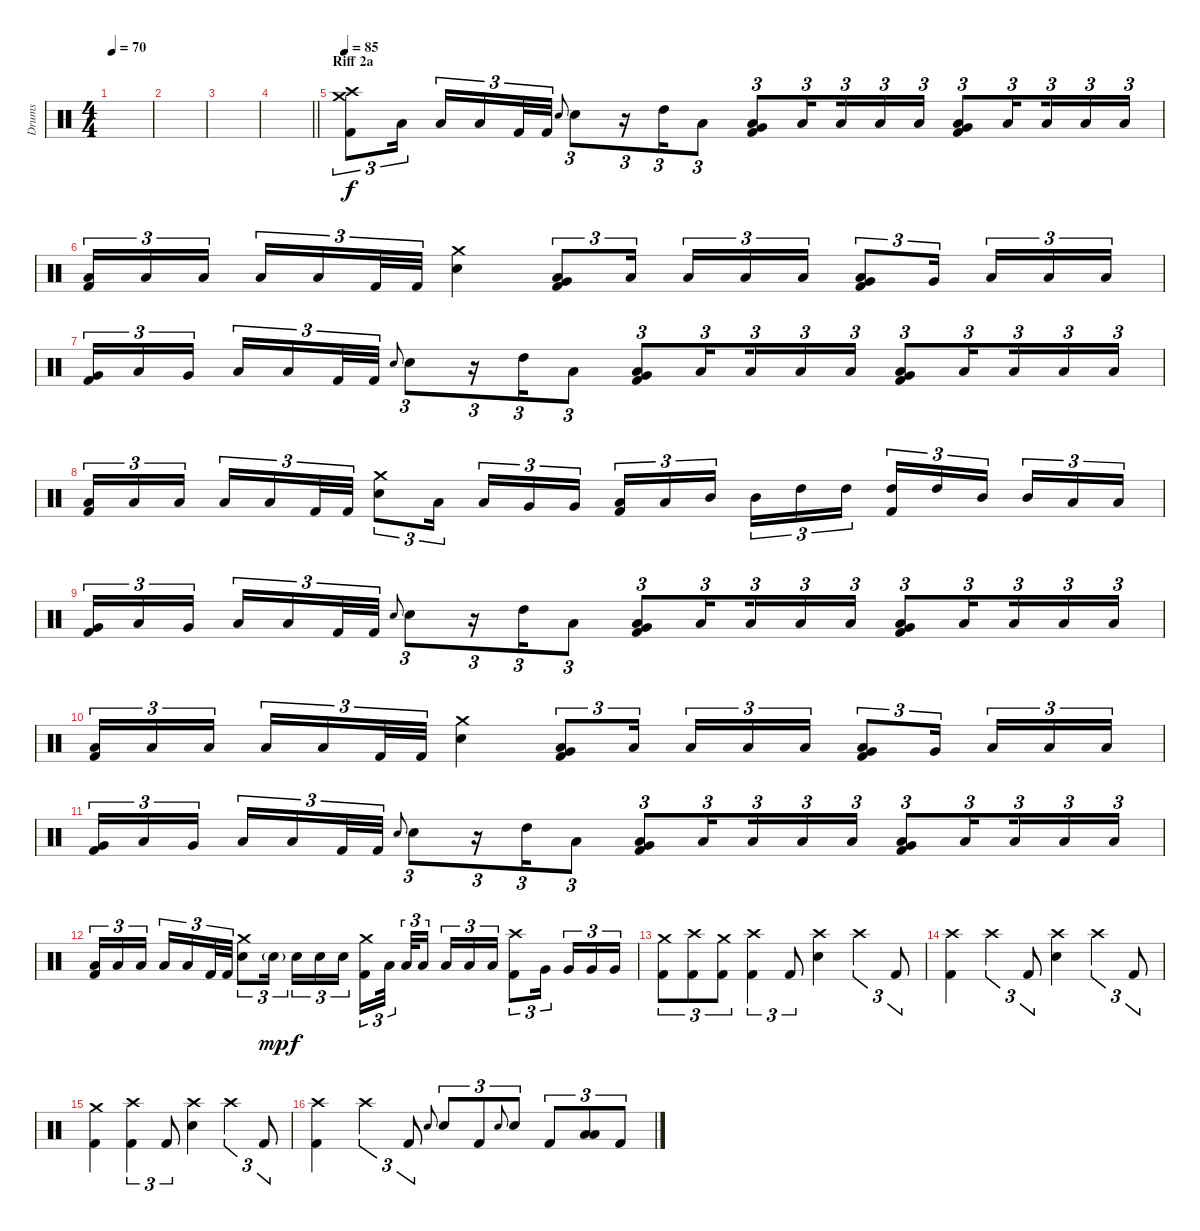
\track ("Drums" "Drums") {instrument percussion}
\staff {score}
\articulation defaults
\ts (4 4)
\tempo 70
\clef neutral
\ks c
|
|
|
\barLineRight lightlight
|
\section ("" "Riff 2a")
\tempo 85
("Crash high (hit)" "Crash medium (hit)" "Kick (hit) 2").8{tu (3 2)} "Low Floor Tom (hit)".16{tu (3 2) beam splitsecondary} "Low Floor Tom (hit)".16{tu (3 2)} "Low Floor Tom (hit)".16{tu (3 2)} "Kick (hit) 2".32{tu (3 2)} "Kick (hit) 2".32{tu (3 2)} "Electric Snare (hit)".8{gr onbeat} "Electric Snare (hit)".8{tu (3 2)} r.16{tu (3 2)} "High Tom (hit)".16{tu (3 2)} "Low Tom (hit)".8{tu (3 2)} ("Very Low Tom (hit)" "Low Floor Tom (hit)" "Kick (hit) 2").8{tu (3 2)} "Low Floor Tom (hit)".16{tu (3 2) beam splitsecondary} "Low Floor Tom (hit)".16{tu (3 2)} "Low Floor Tom (hit)".16{tu (3 2)} "Low Floor Tom (hit)".16{tu (3 2)} ("Kick (hit) 2" "Low Floor Tom (hit)" "Very Low Tom (hit)").8{tu (3 2)} "Low Tom (hit)".16{tu (3 2) beam splitsecondary} "Low Tom (hit)".16{tu (3 2)} "Low Tom (hit)".16{tu (3 2)} "Low Tom (hit)".16{tu (3 2)} |
("Kick (hit) 2" "Low Tom (hit)").16{tu (3 2)} "Low Tom (hit)".16{tu (3 2)} "Low Tom (hit)".16{tu (3 2) beam splitsecondary} "Low Tom (hit)".16{tu (3 2)} "Low Tom (hit)".16{tu (3 2)} "Kick (hit) 2".32{tu (3 2)} "Kick (hit) 2".32{tu (3 2)} ("Crash medium (hit)" "Electric Snare (hit)").4 ("Kick (hit) 2" "Low Floor Tom (hit)" "Very Low Tom (hit)").8{tu (3 2)} "Low Floor Tom (hit)".16{tu (3 2) beam splitsecondary} "Low Floor Tom (hit)".16{tu (3 2)} "Low Floor Tom (hit)".16{tu (3 2)} "Low Floor Tom (hit)".16{tu (3 2)} ("Kick (hit) 2" "Very Low Tom (hit)" "Low Floor Tom (hit)").8{tu (3 2)} "Very Low Tom (hit)".16{tu (3 2) beam splitsecondary} "Low Tom (hit)".16{tu (3 2)} "Low Tom (hit)".16{tu (3 2)} "Low Tom (hit)".16{tu (3 2)} |
("Very Low Tom (hit)" "Kick (hit) 2").16{tu (3 2)} "Low Tom (hit)".16{tu (3 2)} "Very Low Tom (hit)".16{tu (3 2) beam splitsecondary} "Low Floor Tom (hit)".16{tu (3 2)} "Low Tom (hit)".16{tu (3 2)} "Kick (hit) 2".32{tu (3 2)} "Kick (hit) 2".32{tu (3 2)} "Electric Snare (hit)".8{gr onbeat} "Electric Snare (hit)".8{tu (3 2)} r.16{tu (3 2)} "High Tom (hit)".16{tu (3 2)} "Low Tom (hit)".8{tu (3 2)} ("Very Low Tom (hit)" "Low Floor Tom (hit)" "Kick (hit) 2").8{tu (3 2)} "Low Floor Tom (hit)".16{tu (3 2) beam splitsecondary} "Low Floor Tom (hit)".16{tu (3 2)} "Low Floor Tom (hit)".16{tu (3 2)} "Low Floor Tom (hit)".16{tu (3 2)} ("Kick (hit) 2" "Low Floor Tom (hit)" "Very Low Tom (hit)").8{tu (3 2)} "Low Tom (hit)".16{tu (3 2) beam splitsecondary} "Low Tom (hit)".16{tu (3 2)} "Low Tom (hit)".16{tu (3 2)} "Low Tom (hit)".16{tu (3 2)} |
("Kick (hit) 2" "Low Tom (hit)").16{tu (3 2)} "Low Tom (hit)".16{tu (3 2)} "Low Tom (hit)".16{tu (3 2) beam splitsecondary} "Low Tom (hit)".16{tu (3 2)} "Low Tom (hit)".16{tu (3 2)} "Kick (hit) 2".32{tu (3 2)} "Kick (hit) 2".32{tu (3 2)} ("Crash medium (hit)" "Electric Snare (hit)").8{tu (3 2)} "Low Floor Tom (hit)".16{tu (3 2) beam splitsecondary} "Low Floor Tom (hit)".16{tu (3 2)} "Very Low Tom (hit)".16{tu (3 2)} "Very Low Tom (hit)".16{tu (3 2)} ("Kick (hit) 2" "Low Tom (hit)").16{tu (3 2)} "Low Tom (hit)".16{tu (3 2)} "Mid Tom (hit)".16{tu (3 2) beam splitsecondary} "Mid Tom (hit)".16{tu (3 2)} "High Tom (hit)".16{tu (3 2)} "High Tom (hit)".16{tu (3 2)} ("High Tom (hit)" "Kick (hit) 2").16{tu (3 2)} "High Tom (hit)".16{tu (3 2)} "Mid Tom (hit)".16{tu (3 2) beam splitsecondary} "Mid Tom (hit)".16{tu (3 2)} "Low Tom (hit)".16{tu (3 2)} "Low Floor Tom (hit)".16{tu (3 2)} |
("Very Low Tom (hit)" "Kick (hit) 2").16{tu (3 2)} "Low Tom (hit)".16{tu (3 2)} "Very Low Tom (hit)".16{tu (3 2) beam splitsecondary} "Low Floor Tom (hit)".16{tu (3 2)} "Low Tom (hit)".16{tu (3 2)} "Kick (hit) 2".32{tu (3 2)} "Kick (hit) 2".32{tu (3 2)} "Electric Snare (hit)".8{gr onbeat} "Electric Snare (hit)".8{tu (3 2)} r.16{tu (3 2)} "High Tom (hit)".16{tu (3 2)} "Low Tom (hit)".8{tu (3 2)} ("Very Low Tom (hit)" "Low Floor Tom (hit)" "Kick (hit) 2").8{tu (3 2)} "Low Floor Tom (hit)".16{tu (3 2) beam splitsecondary} "Low Floor Tom (hit)".16{tu (3 2)} "Low Floor Tom (hit)".16{tu (3 2)} "Low Floor Tom (hit)".16{tu (3 2)} ("Kick (hit) 2" "Low Floor Tom (hit)" "Very Low Tom (hit)").8{tu (3 2)} "Low Tom (hit)".16{tu (3 2) beam splitsecondary} "Low Tom (hit)".16{tu (3 2)} "Low Tom (hit)".16{tu (3 2)} "Low Tom (hit)".16{tu (3 2)} |
("Kick (hit) 2" "Low Tom (hit)").16{tu (3 2)} "Low Tom (hit)".16{tu (3 2)} "Low Tom (hit)".16{tu (3 2) beam splitsecondary} "Low Tom (hit)".16{tu (3 2)} "Low Tom (hit)".16{tu (3 2)} "Kick (hit) 2".32{tu (3 2)} "Kick (hit) 2".32{tu (3 2)} ("Crash medium (hit)" "Electric Snare (hit)").4 ("Kick (hit) 2" "Low Floor Tom (hit)" "Very Low Tom (hit)").8{tu (3 2)} "Low Floor Tom (hit)".16{tu (3 2) beam splitsecondary} "Low Floor Tom (hit)".16{tu (3 2)} "Low Floor Tom (hit)".16{tu (3 2)} "Low Floor Tom (hit)".16{tu (3 2)} ("Kick (hit) 2" "Very Low Tom (hit)" "Low Floor Tom (hit)").8{tu (3 2)} "Very Low Tom (hit)".16{tu (3 2) beam splitsecondary} "Low Tom (hit)".16{tu (3 2)} "Low Tom (hit)".16{tu (3 2)} "Low Tom (hit)".16{tu (3 2)} |
("Very Low Tom (hit)" "Kick (hit) 2").16{tu (3 2)} "Low Tom (hit)".16{tu (3 2)} "Very Low Tom (hit)".16{tu (3 2) beam splitsecondary} "Low Floor Tom (hit)".16{tu (3 2)} "Low Tom (hit)".16{tu (3 2)} "Kick (hit) 2".32{tu (3 2)} "Kick (hit) 2".32{tu (3 2)} "Electric Snare (hit)".8{gr onbeat} "Electric Snare (hit)".8{tu (3 2)} r.16{tu (3 2)} "High Tom (hit)".16{tu (3 2)} "Low Tom (hit)".8{tu (3 2)} ("Very Low Tom (hit)" "Low Floor Tom (hit)" "Kick (hit) 2").8{tu (3 2)} "Low Floor Tom (hit)".16{tu (3 2) beam splitsecondary} "Low Floor Tom (hit)".16{tu (3 2)} "Low Floor Tom (hit)".16{tu (3 2)} "Low Floor Tom (hit)".16{tu (3 2)} ("Kick (hit) 2" "Low Floor Tom (hit)" "Very Low Tom (hit)").8{tu (3 2)} "Low Tom (hit)".16{tu (3 2) beam splitsecondary} "Low Tom (hit)".16{tu (3 2)} "Low Tom (hit)".16{tu (3 2)} "Low Tom (hit)".16{tu (3 2)} |
("Kick (hit) 2" "Low Tom (hit)").16{tu (3 2)} "Low Tom (hit)".16{tu (3 2)} "Low Tom (hit)".16{tu (3 2) beam splitsecondary} "Low Tom (hit)".16{tu (3 2)} "Low Tom (hit)".16{tu (3 2)} "Kick (hit) 2".32{tu (3 2)} "Kick (hit) 2".32{tu (3 2)} ("Crash medium (hit)" "Electric Snare (hit)").8{tu (3 2)} "Electric Snare (hit)"{g}.16{tu (3 2) dy mp beam splitsecondary} "Electric Snare (hit)".16{tu (3 2) dy f} "Electric Snare (hit)".16{tu (3 2)} "Electric Snare (hit)".16{tu (3 2)} ("Kick (hit) 2" "Crash medium (hit)").16{tu (3 2)} "Low Tom (hit)".32{tu (3 2) beam splitsecondary} "Low Tom (hit)".32{tu (3 2)} "Low Tom (hit)".16{tu (3 2) beam splitsecondary} "Low Tom (hit)".16{tu (3 2)} "Low Tom (hit)".16{tu (3 2)} "Low Tom (hit)".16{tu (3 2)} ("Kick (hit) 2" "Crash high (hit)").8{tu (3 2)} "Very Low Tom (hit)".16{tu (3 2) beam splitsecondary} "Very Low Tom (hit)".16{tu (3 2)} "Very Low Tom (hit)".16{tu (3 2)} "Very Low Tom (hit)".16{tu (3 2)} |
("Crash medium (hit)" "Kick (hit) 2").8{tu (3 2)} ("Crash high (hit)" "Kick (hit) 2").8{tu (3 2)} ("Crash medium (hit)" "Kick (hit) 2").8{tu (3 2)} ("Crash high (hit)" "Kick (hit) 2").4{tu (3 2)} "Kick (hit) 2".8{tu (3 2)} ("Electric Snare (hit)" "Crash high (hit)").4 "Crash high (hit)".4{tu (3 2)} "Kick (hit) 2".8{tu (3 2)} |
("Crash high (hit)" "Kick (hit) 2").4 "Crash high (hit)".4{tu (3 2)} "Kick (hit) 2".8{tu (3 2)} ("Crash high (hit)" "Electric Snare (hit)").4 "Crash high (hit)".4{tu (3 2)} "Kick (hit) 2".8{tu (3 2)} |
("Crash medium (hit)" "Kick (hit) 2").4 ("Crash high (hit)" "Kick (hit) 2").4{tu (3 2)} "Kick (hit) 2".8{tu (3 2)} ("Electric Snare (hit)" "Crash high (hit)").4 "Crash high (hit)".4{tu (3 2)} "Kick (hit) 2".8{tu (3 2)} |
("Kick (hit) 2" "Crash high (hit)").4 "Crash high (hit)".4{tu (3 2)} "Kick (hit) 2".8{tu (3 2)} "Electric Snare (hit)".8{gr onbeat} "Electric Snare (hit)".8{tu (3 2)} "Kick (hit) 2".8{tu (3 2)} "Electric Snare (hit)".8{gr onbeat} "Electric Snare (hit)".8{tu (3 2)} "Kick (hit) 2".8{tu (3 2)} ("Low Tom (hit)" "Low Floor Tom (hit)").8{tu (3 2)} "Kick (hit) 2".8{tu (3 2)}
